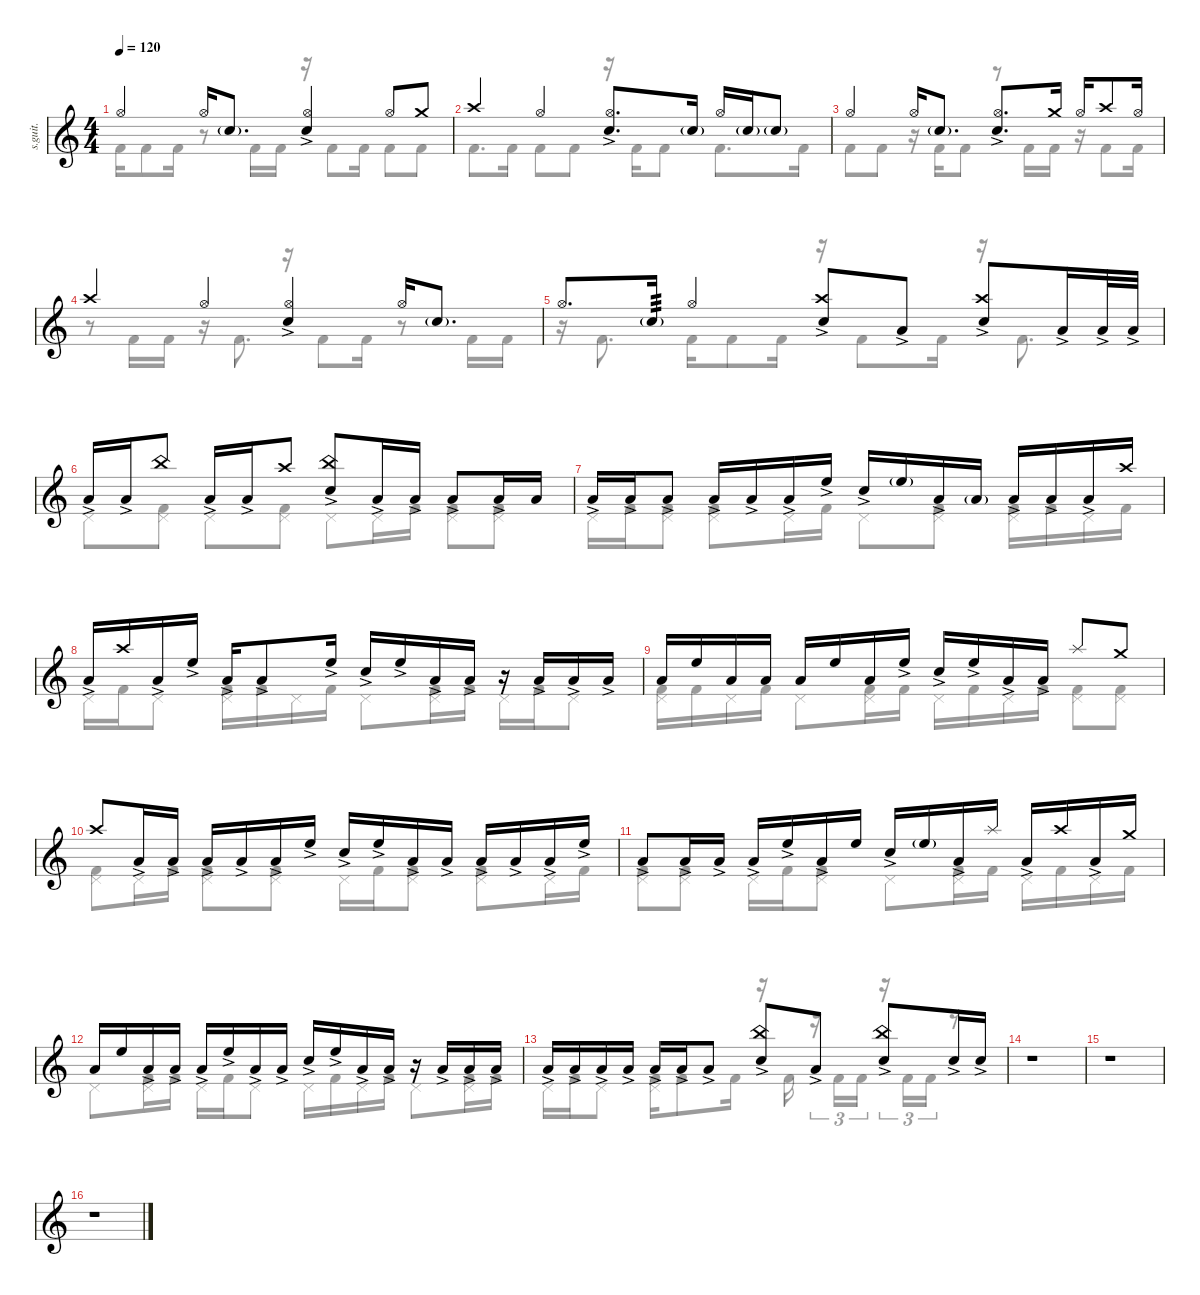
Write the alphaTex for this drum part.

\defaultSystemsLayout 4
\hideDynamics
\bracketExtendMode nobrackets
\track ("Matt Halpern" "s.guit.") {instrument percussion}
\staff {score}
\articulation defaults
\voice
\ts (4 4)
\tempo 120
\clef g2
\ks c "Hi-Hat (open)".4{lyrics (0 "") lyrics (1 "") lyrics (2 "") lyrics (3 "") lyrics (4 "") dy f} "Hi-Hat (open)".16{lyrics (0 "") lyrics (1 "") lyrics (2 "") lyrics (3 "") lyrics (4 "")} "Snare (hit) 2"{g}.8{d lyrics (0 "") lyrics (1 "") lyrics (2 "") lyrics (3 "") lyrics (4 "")}
("Snare (hit) 2"{ac} "Hi-Hat (open)").4{lyrics (0 "") lyrics (1 "") lyrics (2 "") lyrics (3 "") lyrics (4 "")} "Hi-Hat (open)".8{lyrics (0 "") lyrics (1 "") lyrics (2 "") lyrics (3 "") lyrics (4 "")} "Crash medium (hit)".8{lyrics (0 "") lyrics (1 "") lyrics (2 "") lyrics (3 "") lyrics (4 "")} |
"Crash high (hit)".4{lyrics (0 "") lyrics (1 "") lyrics (2 "") lyrics (3 "") lyrics (4 "")} "Hi-Hat (open)".4{lyrics (0 "") lyrics (1 "") lyrics (2 "") lyrics (3 "") lyrics (4 "")} ("Hi-Hat (open)" "Snare (hit) 2"{ac}).8{d lyrics (0 "") lyrics (1 "") lyrics (2 "") lyrics (3 "") lyrics (4 "")} "Snare (hit) 2"{g}.16{lyrics (0 "") lyrics (1 "") lyrics (2 "") lyrics (3 "") lyrics (4 "")} "Hi-Hat (open)".16{lyrics (0 "") lyrics (1 "") lyrics (2 "") lyrics (3 "") lyrics (4 "")} "Snare (hit) 2"{g}.16{lyrics (0 "") lyrics (1 "") lyrics (2 "") lyrics (3 "") lyrics (4 "")} "Snare (hit) 2"{g}.8{lyrics (0 "") lyrics (1 "") lyrics (2 "") lyrics (3 "") lyrics (4 "")} |
"Hi-Hat (open)".4{lyrics (0 "") lyrics (1 "") lyrics (2 "") lyrics (3 "") lyrics (4 "")} "Hi-Hat (open)".16{lyrics (0 "") lyrics (1 "") lyrics (2 "") lyrics (3 "") lyrics (4 "")} "Snare (hit) 2"{g}.8{d lyrics (0 "") lyrics (1 "") lyrics (2 "") lyrics (3 "") lyrics (4 "")} ("Snare (hit) 2"{ac} "Hi-Hat (open)").8{d lyrics (0 "") lyrics (1 "") lyrics (2 "") lyrics (3 "") lyrics (4 "")} "Crash medium (hit)".16{lyrics (0 "") lyrics (1 "") lyrics (2 "") lyrics (3 "") lyrics (4 "")} "Hi-Hat (open)".16{lyrics (0 "") lyrics (1 "") lyrics (2 "") lyrics (3 "") lyrics (4 "")} "Crash high (hit)".8{lyrics (0 "") lyrics (1 "") lyrics (2 "") lyrics (3 "") lyrics (4 "")} "Hi-Hat (open)".16{lyrics (0 "") lyrics (1 "") lyrics (2 "") lyrics (3 "") lyrics (4 "")} |
"Crash high (hit)".4{lyrics (0 "") lyrics (1 "") lyrics (2 "") lyrics (3 "") lyrics (4 "")} "Hi-Hat (open)".4{lyrics (0 "") lyrics (1 "") lyrics (2 "") lyrics (3 "") lyrics (4 "")} ("Hi-Hat (open)" "Snare (hit) 2"{ac}).4{lyrics (0 "") lyrics (1 "") lyrics (2 "") lyrics (3 "") lyrics (4 "")} "Hi-Hat (open)".16{lyrics (0 "") lyrics (1 "") lyrics (2 "") lyrics (3 "") lyrics (4 "")} "Snare (hit) 2"{g}.8{d lyrics (0 "") lyrics (1 "") lyrics (2 "") lyrics (3 "") lyrics (4 "")} |
"Hi-Hat (open)".8{d lyrics (0 "") lyrics (1 "") lyrics (2 "") lyrics (3 "") lyrics (4 "")} "Snare (hit) 2"{g}.16{lyrics (0 "") lyrics (1 "") lyrics (2 "") lyrics (3 "") lyrics (4 "") tp 3} "Hi-Hat (open)".4{lyrics (0 "") lyrics (1 "") lyrics (2 "") lyrics (3 "") lyrics (4 "")} ("Snare (hit) 2"{ac} "Crash high (hit)").8{lyrics (0 "") lyrics (1 "") lyrics (2 "") lyrics (3 "") lyrics (4 "")} "Low Tom (hit)"{ac}.8{lyrics (0 "") lyrics (1 "") lyrics (2 "") lyrics (3 "") lyrics (4 "")} ("Snare (hit) 2"{ac} "Crash high (hit)").8{lyrics (0 "") lyrics (1 "") lyrics (2 "") lyrics (3 "") lyrics (4 "")} "Low Tom (hit)"{ac}.16{lyrics (0 "") lyrics (1 "") lyrics (2 "") lyrics (3 "") lyrics (4 "")} "Low Tom (hit)"{ac}.32{lyrics (0 "") lyrics (1 "") lyrics (2 "") lyrics (3 "") lyrics (4 "")} "Low Tom (hit)"{ac}.32{lyrics (0 "") lyrics (1 "") lyrics (2 "") lyrics (3 "") lyrics (4 "")} |
"Low Tom (hit)"{ac}.16{lyrics (0 "") lyrics (1 "") lyrics (2 "") lyrics (3 "") lyrics (4 "")} "Low Tom (hit)"{ac}.16{lyrics (0 "") lyrics (1 "") lyrics (2 "") lyrics (3 "") lyrics (4 "")} "China (hit)".8{lyrics (0 "") lyrics (1 "") lyrics (2 "") lyrics (3 "") lyrics (4 "")} "Low Tom (hit)"{ac}.16{lyrics (0 "") lyrics (1 "") lyrics (2 "") lyrics (3 "") lyrics (4 "")} "Low Tom (hit)"{ac}.16{lyrics (0 "") lyrics (1 "") lyrics (2 "") lyrics (3 "") lyrics (4 "")} "Crash high (hit)".8{lyrics (0 "") lyrics (1 "") lyrics (2 "") lyrics (3 "") lyrics (4 "")} ("Snare (hit) 2"{ac} "China (hit)").8{lyrics (0 "") lyrics (1 "") lyrics (2 "") lyrics (3 "") lyrics (4 "")} "Low Tom (hit)"{ac}.16{lyrics (0 "") lyrics (1 "") lyrics (2 "") lyrics (3 "") lyrics (4 "")} "Low Tom (hit)"{ac}.16{lyrics (0 "") lyrics (1 "") lyrics (2 "") lyrics (3 "") lyrics (4 "")} "Low Tom (hit)"{ac}.8{lyrics (0 "") lyrics (1 "") lyrics (2 "") lyrics (3 "") lyrics (4 "")} "Low Tom (hit)"{ac}.16{lyrics (0 "") lyrics (1 "") lyrics (2 "") lyrics (3 "") lyrics (4 "")} "Low Tom (hit)".16{lyrics (0 "") lyrics (1 "") lyrics (2 "") lyrics (3 "") lyrics (4 "")} |
"Low Tom (hit)"{ac}.16{lyrics (0 "") lyrics (1 "") lyrics (2 "") lyrics (3 "") lyrics (4 "")} "Low Tom (hit)"{ac}.16{lyrics (0 "") lyrics (1 "") lyrics (2 "") lyrics (3 "") lyrics (4 "")} "Low Tom (hit)"{ac}.8{lyrics (0 "") lyrics (1 "") lyrics (2 "") lyrics (3 "") lyrics (4 "")} "Low Tom (hit)"{ac}.16{lyrics (0 "") lyrics (1 "") lyrics (2 "") lyrics (3 "") lyrics (4 "")} "Low Tom (hit)"{ac}.16{lyrics (0 "") lyrics (1 "") lyrics (2 "") lyrics (3 "") lyrics (4 "")} "Low Tom (hit)"{ac}.16{lyrics (0 "") lyrics (1 "") lyrics (2 "") lyrics (3 "") lyrics (4 "")} "High Floor Tom (hit)"{ac}.16{lyrics (0 "") lyrics (1 "") lyrics (2 "") lyrics (3 "") lyrics (4 "")} "Snare (hit) 2"{ac}.16{lyrics (0 "") lyrics (1 "") lyrics (2 "") lyrics (3 "") lyrics (4 "")} "High Floor Tom (hit)"{g}.16{lyrics (0 "") lyrics (1 "") lyrics (2 "") lyrics (3 "") lyrics (4 "")} "Low Tom (hit)"{ac}.16{lyrics (0 "") lyrics (1 "") lyrics (2 "") lyrics (3 "") lyrics (4 "")} "Low Tom (hit)"{g}.16{lyrics (0 "") lyrics (1 "") lyrics (2 "") lyrics (3 "") lyrics (4 "")} "Low Tom (hit)"{ac}.16{lyrics (0 "") lyrics (1 "") lyrics (2 "") lyrics (3 "") lyrics (4 "")} "Low Tom (hit)"{ac}.16{lyrics (0 "") lyrics (1 "") lyrics (2 "") lyrics (3 "") lyrics (4 "")} "Low Tom (hit)"{ac}.16{lyrics (0 "") lyrics (1 "") lyrics (2 "") lyrics (3 "") lyrics (4 "")} "Crash high (hit)".16{lyrics (0 "") lyrics (1 "") lyrics (2 "") lyrics (3 "") lyrics (4 "")} |
"Low Tom (hit)"{ac}.16{lyrics (0 "") lyrics (1 "") lyrics (2 "") lyrics (3 "") lyrics (4 "")} "Crash high (hit)".16{lyrics (0 "") lyrics (1 "") lyrics (2 "") lyrics (3 "") lyrics (4 "")} "Low Tom (hit)"{ac}.16{lyrics (0 "") lyrics (1 "") lyrics (2 "") lyrics (3 "") lyrics (4 "")} "High Floor Tom (hit)"{ac}.16{lyrics (0 "") lyrics (1 "") lyrics (2 "") lyrics (3 "") lyrics (4 "")} "Low Tom (hit)"{ac}.16{lyrics (0 "") lyrics (1 "") lyrics (2 "") lyrics (3 "") lyrics (4 "")} "Low Tom (hit)"{ac}.8{lyrics (0 "") lyrics (1 "") lyrics (2 "") lyrics (3 "") lyrics (4 "")} "High Floor Tom (hit)"{ac}.16{lyrics (0 "") lyrics (1 "") lyrics (2 "") lyrics (3 "") lyrics (4 "")} "Snare (hit) 2"{ac}.16{lyrics (0 "") lyrics (1 "") lyrics (2 "") lyrics (3 "") lyrics (4 "")} "High Floor Tom (hit)"{ac}.16{lyrics (0 "") lyrics (1 "") lyrics (2 "") lyrics (3 "") lyrics (4 "")} "Low Tom (hit)"{ac}.16{lyrics (0 "") lyrics (1 "") lyrics (2 "") lyrics (3 "") lyrics (4 "")} "Low Tom (hit)"{ac}.16{lyrics (0 "") lyrics (1 "") lyrics (2 "") lyrics (3 "") lyrics (4 "")} r.16 "Low Tom (hit)"{ac}.16{lyrics (0 "") lyrics (1 "") lyrics (2 "") lyrics (3 "") lyrics (4 "")} "Low Tom (hit)"{ac}.16{lyrics (0 "") lyrics (1 "") lyrics (2 "") lyrics (3 "") lyrics (4 "")} "Low Tom (hit)"{ac}.16{lyrics (0 "") lyrics (1 "") lyrics (2 "") lyrics (3 "") lyrics (4 "")} |
"Low Tom (hit)".16{lyrics (0 "") lyrics (1 "") lyrics (2 "") lyrics (3 "") lyrics (4 "")} "High Floor Tom (hit)".16{lyrics (0 "") lyrics (1 "") lyrics (2 "") lyrics (3 "") lyrics (4 "")} "Low Tom (hit)".16{lyrics (0 "") lyrics (1 "") lyrics (2 "") lyrics (3 "") lyrics (4 "")} "Low Tom (hit)".16{lyrics (0 "") lyrics (1 "") lyrics (2 "") lyrics (3 "") lyrics (4 "")} "Low Tom (hit)".16{lyrics (0 "") lyrics (1 "") lyrics (2 "") lyrics (3 "") lyrics (4 "")} "High Floor Tom (hit)".16{lyrics (0 "") lyrics (1 "") lyrics (2 "") lyrics (3 "") lyrics (4 "")} "Low Tom (hit)".16{lyrics (0 "") lyrics (1 "") lyrics (2 "") lyrics (3 "") lyrics (4 "")} "High Floor Tom (hit)"{ac}.16{lyrics (0 "") lyrics (1 "") lyrics (2 "") lyrics (3 "") lyrics (4 "")} "Snare (hit) 2"{ac}.16{lyrics (0 "") lyrics (1 "") lyrics (2 "") lyrics (3 "") lyrics (4 "")} "High Floor Tom (hit)"{ac}.16{lyrics (0 "") lyrics (1 "") lyrics (2 "") lyrics (3 "") lyrics (4 "")} "Low Tom (hit)"{ac}.16{lyrics (0 "") lyrics (1 "") lyrics (2 "") lyrics (3 "") lyrics (4 "")} "Low Tom (hit)"{ac}.16{lyrics (0 "") lyrics (1 "") lyrics (2 "") lyrics (3 "") lyrics (4 "")} "Splash (hit)".8{lyrics (0 "") lyrics (1 "") lyrics (2 "") lyrics (3 "") lyrics (4 "")} "Crash medium (hit)".8{lyrics (0 "") lyrics (1 "") lyrics (2 "") lyrics (3 "") lyrics (4 "")} |
"Crash high (hit)".8{lyrics (0 "") lyrics (1 "") lyrics (2 "") lyrics (3 "") lyrics (4 "")} "Low Tom (hit)"{ac}.16{lyrics (0 "") lyrics (1 "") lyrics (2 "") lyrics (3 "") lyrics (4 "")} "Low Tom (hit)"{ac}.16{lyrics (0 "") lyrics (1 "") lyrics (2 "") lyrics (3 "") lyrics (4 "")} "Low Tom (hit)"{ac}.16{lyrics (0 "") lyrics (1 "") lyrics (2 "") lyrics (3 "") lyrics (4 "")} "Low Tom (hit)"{ac}.16{lyrics (0 "") lyrics (1 "") lyrics (2 "") lyrics (3 "") lyrics (4 "")} "Low Tom (hit)"{ac}.16{lyrics (0 "") lyrics (1 "") lyrics (2 "") lyrics (3 "") lyrics (4 "")} "High Floor Tom (hit)"{ac}.16{lyrics (0 "") lyrics (1 "") lyrics (2 "") lyrics (3 "") lyrics (4 "")} "Snare (hit) 2"{ac}.16{lyrics (0 "") lyrics (1 "") lyrics (2 "") lyrics (3 "") lyrics (4 "")} "High Floor Tom (hit)"{ac}.16{lyrics (0 "") lyrics (1 "") lyrics (2 "") lyrics (3 "") lyrics (4 "")} "Low Tom (hit)"{ac}.16{lyrics (0 "") lyrics (1 "") lyrics (2 "") lyrics (3 "") lyrics (4 "")} "Low Tom (hit)"{ac}.16{lyrics (0 "") lyrics (1 "") lyrics (2 "") lyrics (3 "") lyrics (4 "")} "Low Tom (hit)"{ac}.16{lyrics (0 "") lyrics (1 "") lyrics (2 "") lyrics (3 "") lyrics (4 "")} "Low Tom (hit)"{ac}.16{lyrics (0 "") lyrics (1 "") lyrics (2 "") lyrics (3 "") lyrics (4 "")} "Low Tom (hit)"{ac}.16{lyrics (0 "") lyrics (1 "") lyrics (2 "") lyrics (3 "") lyrics (4 "")} "High Floor Tom (hit)"{ac}.16{lyrics (0 "") lyrics (1 "") lyrics (2 "") lyrics (3 "") lyrics (4 "")} |
"Low Tom (hit)"{ac}.8{lyrics (0 "") lyrics (1 "") lyrics (2 "") lyrics (3 "") lyrics (4 "")} "Low Tom (hit)"{ac}.16{lyrics (0 "") lyrics (1 "") lyrics (2 "") lyrics (3 "") lyrics (4 "")} "Low Tom (hit)"{ac}.16{lyrics (0 "") lyrics (1 "") lyrics (2 "") lyrics (3 "") lyrics (4 "")} "Low Tom (hit)"{ac}.16{lyrics (0 "") lyrics (1 "") lyrics (2 "") lyrics (3 "") lyrics (4 "")} "High Floor Tom (hit)"{ac}.16{lyrics (0 "") lyrics (1 "") lyrics (2 "") lyrics (3 "") lyrics (4 "")} "Low Tom (hit)"{ac}.16{lyrics (0 "") lyrics (1 "") lyrics (2 "") lyrics (3 "") lyrics (4 "")} "High Floor Tom (hit)".16{lyrics (0 "") lyrics (1 "") lyrics (2 "") lyrics (3 "") lyrics (4 "")} "Snare (hit) 2"{ac}.16{lyrics (0 "") lyrics (1 "") lyrics (2 "") lyrics (3 "") lyrics (4 "")} "High Floor Tom (hit)"{g}.16{lyrics (0 "") lyrics (1 "") lyrics (2 "") lyrics (3 "") lyrics (4 "")} "Low Tom (hit)"{ac}.16{lyrics (0 "") lyrics (1 "") lyrics (2 "") lyrics (3 "") lyrics (4 "")} "Splash (hit)".16{lyrics (0 "") lyrics (1 "") lyrics (2 "") lyrics (3 "") lyrics (4 "")} "Low Tom (hit)"{ac}.16{lyrics (0 "") lyrics (1 "") lyrics (2 "") lyrics (3 "") lyrics (4 "")} "Crash high (hit)".16{lyrics (0 "") lyrics (1 "") lyrics (2 "") lyrics (3 "") lyrics (4 "")} "Low Tom (hit)"{ac}.16{lyrics (0 "") lyrics (1 "") lyrics (2 "") lyrics (3 "") lyrics (4 "")} "Crash medium (hit)".16{lyrics (0 "") lyrics (1 "") lyrics (2 "") lyrics (3 "") lyrics (4 "")} |
"Low Tom (hit)".16{lyrics (0 "") lyrics (1 "") lyrics (2 "") lyrics (3 "") lyrics (4 "")} "High Floor Tom (hit)".16{lyrics (0 "") lyrics (1 "") lyrics (2 "") lyrics (3 "") lyrics (4 "")} "Low Tom (hit)"{ac}.16{lyrics (0 "") lyrics (1 "") lyrics (2 "") lyrics (3 "") lyrics (4 "")} "Low Tom (hit)"{ac}.16{lyrics (0 "") lyrics (1 "") lyrics (2 "") lyrics (3 "") lyrics (4 "")} "Low Tom (hit)"{ac}.16{lyrics (0 "") lyrics (1 "") lyrics (2 "") lyrics (3 "") lyrics (4 "")} "High Floor Tom (hit)"{ac}.16{lyrics (0 "") lyrics (1 "") lyrics (2 "") lyrics (3 "") lyrics (4 "")} "Low Tom (hit)"{ac}.16{lyrics (0 "") lyrics (1 "") lyrics (2 "") lyrics (3 "") lyrics (4 "")} "Low Tom (hit)"{ac}.16{lyrics (0 "") lyrics (1 "") lyrics (2 "") lyrics (3 "") lyrics (4 "")} "Snare (hit) 2"{ac}.16{lyrics (0 "") lyrics (1 "") lyrics (2 "") lyrics (3 "") lyrics (4 "")} "High Floor Tom (hit)"{ac}.16{lyrics (0 "") lyrics (1 "") lyrics (2 "") lyrics (3 "") lyrics (4 "")} "Low Tom (hit)"{ac}.16{lyrics (0 "") lyrics (1 "") lyrics (2 "") lyrics (3 "") lyrics (4 "")} "Low Tom (hit)"{ac}.16{lyrics (0 "") lyrics (1 "") lyrics (2 "") lyrics (3 "") lyrics (4 "")} r.16 "Low Tom (hit)"{ac}.16{lyrics (0 "") lyrics (1 "") lyrics (2 "") lyrics (3 "") lyrics (4 "")} "Low Tom (hit)"{ac}.16{lyrics (0 "") lyrics (1 "") lyrics (2 "") lyrics (3 "") lyrics (4 "")} "Low Tom (hit)"{ac}.16{lyrics (0 "") lyrics (1 "") lyrics (2 "") lyrics (3 "") lyrics (4 "")} |
"Low Tom (hit)"{ac}.16{lyrics (0 "") lyrics (1 "") lyrics (2 "") lyrics (3 "") lyrics (4 "")} "Low Tom (hit)"{ac}.16{lyrics (0 "") lyrics (1 "") lyrics (2 "") lyrics (3 "") lyrics (4 "")} "Low Tom (hit)"{ac}.16{lyrics (0 "") lyrics (1 "") lyrics (2 "") lyrics (3 "") lyrics (4 "")} "Low Tom (hit)"{ac}.16{lyrics (0 "") lyrics (1 "") lyrics (2 "") lyrics (3 "") lyrics (4 "")} "Low Tom (hit)"{ac}.16{lyrics (0 "") lyrics (1 "") lyrics (2 "") lyrics (3 "") lyrics (4 "")} "Low Tom (hit)"{ac}.16{lyrics (0 "") lyrics (1 "") lyrics (2 "") lyrics (3 "") lyrics (4 "")} "Low Tom (hit)"{ac}.8{lyrics (0 "") lyrics (1 "") lyrics (2 "") lyrics (3 "") lyrics (4 "")} ("Snare (hit) 2"{ac} "China (hit)").8{lyrics (0 "") lyrics (1 "") lyrics (2 "") lyrics (3 "") lyrics (4 "")} "Low Tom (hit)"{ac}.8{lyrics (0 "") lyrics (1 "") lyrics (2 "") lyrics (3 "") lyrics (4 "")} ("Snare (hit) 2"{ac} "China (hit)").8{lyrics (0 "") lyrics (1 "") lyrics (2 "") lyrics (3 "") lyrics (4 "")} "Snare (hit) 2"{ac}.16{lyrics (0 "") lyrics (1 "") lyrics (2 "") lyrics (3 "") lyrics (4 "")} "Snare (hit) 2"{ac}.16{lyrics (0 "") lyrics (1 "") lyrics (2 "") lyrics (3 "") lyrics (4 "")} |
r.1 |
r.1 |
r.1
\voice
\clef g2
\ottava regular
\simile none
\ks c "Kick (hit) 2".16{lyrics (0 "") lyrics (1 "") lyrics (2 "") lyrics (3 "") lyrics (4 "") dy f} "Kick (hit) 2".8{lyrics (0 "") lyrics (1 "") lyrics (2 "") lyrics (3 "") lyrics (4 "")} "Kick (hit) 2".16{lyrics (0 "") lyrics (1 "") lyrics (2 "") lyrics (3 "") lyrics (4 "")}
r.8 "Kick (hit) 2".16{lyrics (0 "") lyrics (1 "") lyrics (2 "") lyrics (3 "") lyrics (4 "")} "Kick (hit) 2".16{lyrics (0 "") lyrics (1 "") lyrics (2 "") lyrics (3 "") lyrics (4 "")} r.16 "Kick (hit) 2".8{lyrics (0 "") lyrics (1 "") lyrics (2 "") lyrics (3 "") lyrics (4 "")} "Kick (hit) 2".16{lyrics (0 "") lyrics (1 "") lyrics (2 "") lyrics (3 "") lyrics (4 "")} "Kick (hit) 2".8{lyrics (0 "") lyrics (1 "") lyrics (2 "") lyrics (3 "") lyrics (4 "")} "Kick (hit) 2".8{lyrics (0 "") lyrics (1 "") lyrics (2 "") lyrics (3 "") lyrics (4 "")} |
"Kick (hit) 2".8{d lyrics (0 "") lyrics (1 "") lyrics (2 "") lyrics (3 "") lyrics (4 "")} "Kick (hit) 2".16{lyrics (0 "") lyrics (1 "") lyrics (2 "") lyrics (3 "") lyrics (4 "")} "Kick (hit) 2".8{lyrics (0 "") lyrics (1 "") lyrics (2 "") lyrics (3 "") lyrics (4 "")} "Kick (hit) 2".8{lyrics (0 "") lyrics (1 "") lyrics (2 "") lyrics (3 "") lyrics (4 "")} r.16 "Kick (hit) 2".16{lyrics (0 "") lyrics (1 "") lyrics (2 "") lyrics (3 "") lyrics (4 "")} "Kick (hit) 2".8{lyrics (0 "") lyrics (1 "") lyrics (2 "") lyrics (3 "") lyrics (4 "")} "Kick (hit) 2".8{d lyrics (0 "") lyrics (1 "") lyrics (2 "") lyrics (3 "") lyrics (4 "")} "Kick (hit) 2".16{lyrics (0 "") lyrics (1 "") lyrics (2 "") lyrics (3 "") lyrics (4 "")} |
"Kick (hit) 2".8{lyrics (0 "") lyrics (1 "") lyrics (2 "") lyrics (3 "") lyrics (4 "")} "Kick (hit) 2".8{lyrics (0 "") lyrics (1 "") lyrics (2 "") lyrics (3 "") lyrics (4 "")} r.16 "Kick (hit) 2".16{lyrics (0 "") lyrics (1 "") lyrics (2 "") lyrics (3 "") lyrics (4 "")} "Kick (hit) 2".8{lyrics (0 "") lyrics (1 "") lyrics (2 "") lyrics (3 "") lyrics (4 "")} r.8 "Kick (hit) 2".16{lyrics (0 "") lyrics (1 "") lyrics (2 "") lyrics (3 "") lyrics (4 "")} "Kick (hit) 2".16{lyrics (0 "") lyrics (1 "") lyrics (2 "") lyrics (3 "") lyrics (4 "")} r.16 "Kick (hit) 2".8{lyrics (0 "") lyrics (1 "") lyrics (2 "") lyrics (3 "") lyrics (4 "")} "Kick (hit) 2".16{lyrics (0 "") lyrics (1 "") lyrics (2 "") lyrics (3 "") lyrics (4 "")} |
r.8 "Kick (hit) 2".16{lyrics (0 "") lyrics (1 "") lyrics (2 "") lyrics (3 "") lyrics (4 "")} "Kick (hit) 2".16{lyrics (0 "") lyrics (1 "") lyrics (2 "") lyrics (3 "") lyrics (4 "")} r.16 "Kick (hit) 2".8{d lyrics (0 "") lyrics (1 "") lyrics (2 "") lyrics (3 "") lyrics (4 "")} r.16 "Kick (hit) 2".8{lyrics (0 "") lyrics (1 "") lyrics (2 "") lyrics (3 "") lyrics (4 "")} "Kick (hit) 2".16{lyrics (0 "") lyrics (1 "") lyrics (2 "") lyrics (3 "") lyrics (4 "")} r.8 "Kick (hit) 2".16{lyrics (0 "") lyrics (1 "") lyrics (2 "") lyrics (3 "") lyrics (4 "")} "Kick (hit) 2".16{lyrics (0 "") lyrics (1 "") lyrics (2 "") lyrics (3 "") lyrics (4 "")} |
r.16 "Kick (hit) 2".8{d lyrics (0 "") lyrics (1 "") lyrics (2 "") lyrics (3 "") lyrics (4 "")} "Kick (hit) 2".16{lyrics (0 "") lyrics (1 "") lyrics (2 "") lyrics (3 "") lyrics (4 "")} "Kick (hit) 2".8{lyrics (0 "") lyrics (1 "") lyrics (2 "") lyrics (3 "") lyrics (4 "")} "Kick (hit) 2".16{lyrics (0 "") lyrics (1 "") lyrics (2 "") lyrics (3 "") lyrics (4 "")} r.16 "Kick (hit) 2".8{lyrics (0 "") lyrics (1 "") lyrics (2 "") lyrics (3 "") lyrics (4 "")} "Kick (hit) 2".16{lyrics (0 "") lyrics (1 "") lyrics (2 "") lyrics (3 "") lyrics (4 "")} r.16 "Kick (hit) 2".8{d lyrics (0 "") lyrics (1 "") lyrics (2 "") lyrics (3 "") lyrics (4 "")} |
"Pedal Hi-Hat (hit)".8{lyrics (0 "") lyrics (1 "") lyrics (2 "") lyrics (3 "") lyrics (4 "")} ("Kick (hit) 2" "Pedal Hi-Hat (hit)").8{lyrics (0 "") lyrics (1 "") lyrics (2 "") lyrics (3 "") lyrics (4 "")} "Pedal Hi-Hat (hit)".8{lyrics (0 "") lyrics (1 "") lyrics (2 "") lyrics (3 "") lyrics (4 "")} ("Kick (hit) 2" "Pedal Hi-Hat (hit)").8{lyrics (0 "") lyrics (1 "") lyrics (2 "") lyrics (3 "") lyrics (4 "")} "Pedal Hi-Hat (hit)".8{lyrics (0 "") lyrics (1 "") lyrics (2 "") lyrics (3 "") lyrics (4 "")} "Pedal Hi-Hat (hit)".16{lyrics (0 "") lyrics (1 "") lyrics (2 "") lyrics (3 "") lyrics (4 "")} "Kick (hit) 2".16{lyrics (0 "") lyrics (1 "") lyrics (2 "") lyrics (3 "") lyrics (4 "")} ("Pedal Hi-Hat (hit)" "Kick (hit) 2").8{lyrics (0 "") lyrics (1 "") lyrics (2 "") lyrics (3 "") lyrics (4 "")} ("Pedal Hi-Hat (hit)" "Kick (hit) 2").8{lyrics (0 "") lyrics (1 "") lyrics (2 "") lyrics (3 "") lyrics (4 "")} |
"Pedal Hi-Hat (hit)".16{lyrics (0 "") lyrics (1 "") lyrics (2 "") lyrics (3 "") lyrics (4 "")} "Kick (hit) 2".16{lyrics (0 "") lyrics (1 "") lyrics (2 "") lyrics (3 "") lyrics (4 "")} ("Pedal Hi-Hat (hit)" "Kick (hit) 2").8{lyrics (0 "") lyrics (1 "") lyrics (2 "") lyrics (3 "") lyrics (4 "")} ("Pedal Hi-Hat (hit)" "Kick (hit) 2").8{lyrics (0 "") lyrics (1 "") lyrics (2 "") lyrics (3 "") lyrics (4 "")} "Pedal Hi-Hat (hit)".16{lyrics (0 "") lyrics (1 "") lyrics (2 "") lyrics (3 "") lyrics (4 "")} "Kick (hit) 2".16{lyrics (0 "") lyrics (1 "") lyrics (2 "") lyrics (3 "") lyrics (4 "")} "Pedal Hi-Hat (hit)".8{lyrics (0 "") lyrics (1 "") lyrics (2 "") lyrics (3 "") lyrics (4 "")} ("Pedal Hi-Hat (hit)" "Kick (hit) 2").8{lyrics (0 "") lyrics (1 "") lyrics (2 "") lyrics (3 "") lyrics (4 "")} ("Pedal Hi-Hat (hit)" "Kick (hit) 2").16{lyrics (0 "") lyrics (1 "") lyrics (2 "") lyrics (3 "") lyrics (4 "")} "Kick (hit) 2".16{lyrics (0 "") lyrics (1 "") lyrics (2 "") lyrics (3 "") lyrics (4 "")} "Pedal Hi-Hat (hit)".16{lyrics (0 "") lyrics (1 "") lyrics (2 "") lyrics (3 "") lyrics (4 "")} "Kick (hit) 2".16{lyrics (0 "") lyrics (1 "") lyrics (2 "") lyrics (3 "") lyrics (4 "")} |
"Pedal Hi-Hat (hit)".16{lyrics (0 "") lyrics (1 "") lyrics (2 "") lyrics (3 "") lyrics (4 "")} "Kick (hit) 2".16{lyrics (0 "") lyrics (1 "") lyrics (2 "") lyrics (3 "") lyrics (4 "")} "Pedal Hi-Hat (hit)".8{lyrics (0 "") lyrics (1 "") lyrics (2 "") lyrics (3 "") lyrics (4 "")} ("Kick (hit) 2" "Pedal Hi-Hat (hit)").16{lyrics (0 "") lyrics (1 "") lyrics (2 "") lyrics (3 "") lyrics (4 "")} "Kick (hit) 2".16{lyrics (0 "") lyrics (1 "") lyrics (2 "") lyrics (3 "") lyrics (4 "")} "Pedal Hi-Hat (hit)".16{lyrics (0 "") lyrics (1 "") lyrics (2 "") lyrics (3 "") lyrics (4 "")} "Kick (hit) 2".16{lyrics (0 "") lyrics (1 "") lyrics (2 "") lyrics (3 "") lyrics (4 "")} "Pedal Hi-Hat (hit)".8{lyrics (0 "") lyrics (1 "") lyrics (2 "") lyrics (3 "") lyrics (4 "")} ("Kick (hit) 2" "Pedal Hi-Hat (hit)").16{lyrics (0 "") lyrics (1 "") lyrics (2 "") lyrics (3 "") lyrics (4 "")} "Kick (hit) 2".16{lyrics (0 "") lyrics (1 "") lyrics (2 "") lyrics (3 "") lyrics (4 "")} "Pedal Hi-Hat (hit)".16{lyrics (0 "") lyrics (1 "") lyrics (2 "") lyrics (3 "") lyrics (4 "")} "Kick (hit) 2".16{lyrics (0 "") lyrics (1 "") lyrics (2 "") lyrics (3 "") lyrics (4 "")} "Pedal Hi-Hat (hit)".8{lyrics (0 "") lyrics (1 "") lyrics (2 "") lyrics (3 "") lyrics (4 "")} |
("Kick (hit) 2" "Pedal Hi-Hat (hit)").16{lyrics (0 "") lyrics (1 "") lyrics (2 "") lyrics (3 "") lyrics (4 "")} "Kick (hit) 2".16{lyrics (0 "") lyrics (1 "") lyrics (2 "") lyrics (3 "") lyrics (4 "")} "Pedal Hi-Hat (hit)".16{lyrics (0 "") lyrics (1 "") lyrics (2 "") lyrics (3 "") lyrics (4 "")} "Kick (hit) 2".16{lyrics (0 "") lyrics (1 "") lyrics (2 "") lyrics (3 "") lyrics (4 "")} "Pedal Hi-Hat (hit)".8{lyrics (0 "") lyrics (1 "") lyrics (2 "") lyrics (3 "") lyrics (4 "")} ("Kick (hit) 2" "Pedal Hi-Hat (hit)").16{lyrics (0 "") lyrics (1 "") lyrics (2 "") lyrics (3 "") lyrics (4 "")} "Kick (hit) 2".16{lyrics (0 "") lyrics (1 "") lyrics (2 "") lyrics (3 "") lyrics (4 "")} "Pedal Hi-Hat (hit)".16{lyrics (0 "") lyrics (1 "") lyrics (2 "") lyrics (3 "") lyrics (4 "")} "Kick (hit) 2".16{lyrics (0 "") lyrics (1 "") lyrics (2 "") lyrics (3 "") lyrics (4 "")} "Pedal Hi-Hat (hit)".16{lyrics (0 "") lyrics (1 "") lyrics (2 "") lyrics (3 "") lyrics (4 "")} "Kick (hit) 2".16{lyrics (0 "") lyrics (1 "") lyrics (2 "") lyrics (3 "") lyrics (4 "")} ("Kick (hit) 2" "Pedal Hi-Hat (hit)").8{lyrics (0 "") lyrics (1 "") lyrics (2 "") lyrics (3 "") lyrics (4 "")} ("Kick (hit) 2" "Pedal Hi-Hat (hit)").8{lyrics (0 "") lyrics (1 "") lyrics (2 "") lyrics (3 "") lyrics (4 "")} |
("Kick (hit) 2" "Pedal Hi-Hat (hit)").8{lyrics (0 "") lyrics (1 "") lyrics (2 "") lyrics (3 "") lyrics (4 "")} "Pedal Hi-Hat (hit)".16{lyrics (0 "") lyrics (1 "") lyrics (2 "") lyrics (3 "") lyrics (4 "")} "Kick (hit) 2".16{lyrics (0 "") lyrics (1 "") lyrics (2 "") lyrics (3 "") lyrics (4 "")} ("Kick (hit) 2" "Pedal Hi-Hat (hit)").8{lyrics (0 "") lyrics (1 "") lyrics (2 "") lyrics (3 "") lyrics (4 "")} ("Kick (hit) 2" "Pedal Hi-Hat (hit)").8{lyrics (0 "") lyrics (1 "") lyrics (2 "") lyrics (3 "") lyrics (4 "")} "Pedal Hi-Hat (hit)".16{lyrics (0 "") lyrics (1 "") lyrics (2 "") lyrics (3 "") lyrics (4 "")} "Kick (hit) 2".16{lyrics (0 "") lyrics (1 "") lyrics (2 "") lyrics (3 "") lyrics (4 "")} ("Kick (hit) 2" "Pedal Hi-Hat (hit)").8{lyrics (0 "") lyrics (1 "") lyrics (2 "") lyrics (3 "") lyrics (4 "")} ("Kick (hit) 2" "Pedal Hi-Hat (hit)").8{lyrics (0 "") lyrics (1 "") lyrics (2 "") lyrics (3 "") lyrics (4 "")} "Pedal Hi-Hat (hit)".16{lyrics (0 "") lyrics (1 "") lyrics (2 "") lyrics (3 "") lyrics (4 "")} "Kick (hit) 2".16{lyrics (0 "") lyrics (1 "") lyrics (2 "") lyrics (3 "") lyrics (4 "")} |
("Kick (hit) 2" "Pedal Hi-Hat (hit)").8{lyrics (0 "") lyrics (1 "") lyrics (2 "") lyrics (3 "") lyrics (4 "")} ("Kick (hit) 2" "Pedal Hi-Hat (hit)").8{lyrics (0 "") lyrics (1 "") lyrics (2 "") lyrics (3 "") lyrics (4 "")} "Pedal Hi-Hat (hit)".16{lyrics (0 "") lyrics (1 "") lyrics (2 "") lyrics (3 "") lyrics (4 "")} "Kick (hit) 2".16{lyrics (0 "") lyrics (1 "") lyrics (2 "") lyrics (3 "") lyrics (4 "")} ("Kick (hit) 2" "Pedal Hi-Hat (hit)").8{lyrics (0 "") lyrics (1 "") lyrics (2 "") lyrics (3 "") lyrics (4 "")} "Pedal Hi-Hat (hit)".8{lyrics (0 "") lyrics (1 "") lyrics (2 "") lyrics (3 "") lyrics (4 "")} ("Kick (hit) 2" "Pedal Hi-Hat (hit)").16{lyrics (0 "") lyrics (1 "") lyrics (2 "") lyrics (3 "") lyrics (4 "")} "Kick (hit) 2".16{lyrics (0 "") lyrics (1 "") lyrics (2 "") lyrics (3 "") lyrics (4 "")} "Pedal Hi-Hat (hit)".16{lyrics (0 "") lyrics (1 "") lyrics (2 "") lyrics (3 "") lyrics (4 "")} "Kick (hit) 2".16{lyrics (0 "") lyrics (1 "") lyrics (2 "") lyrics (3 "") lyrics (4 "")} "Pedal Hi-Hat (hit)".16{lyrics (0 "") lyrics (1 "") lyrics (2 "") lyrics (3 "") lyrics (4 "")} "Kick (hit) 2".16{lyrics (0 "") lyrics (1 "") lyrics (2 "") lyrics (3 "") lyrics (4 "")} |
"Pedal Hi-Hat (hit)".8{lyrics (0 "") lyrics (1 "") lyrics (2 "") lyrics (3 "") lyrics (4 "")} ("Kick (hit) 2" "Pedal Hi-Hat (hit)").16{lyrics (0 "") lyrics (1 "") lyrics (2 "") lyrics (3 "") lyrics (4 "")} "Kick (hit) 2".16{lyrics (0 "") lyrics (1 "") lyrics (2 "") lyrics (3 "") lyrics (4 "")} "Pedal Hi-Hat (hit)".16{lyrics (0 "") lyrics (1 "") lyrics (2 "") lyrics (3 "") lyrics (4 "")} "Kick (hit) 2".16{lyrics (0 "") lyrics (1 "") lyrics (2 "") lyrics (3 "") lyrics (4 "")} "Pedal Hi-Hat (hit)".8{lyrics (0 "") lyrics (1 "") lyrics (2 "") lyrics (3 "") lyrics (4 "")} "Pedal Hi-Hat (hit)".16{lyrics (0 "") lyrics (1 "") lyrics (2 "") lyrics (3 "") lyrics (4 "")} "Kick (hit) 2".16{lyrics (0 "") lyrics (1 "") lyrics (2 "") lyrics (3 "") lyrics (4 "")} "Pedal Hi-Hat (hit)".16{lyrics (0 "") lyrics (1 "") lyrics (2 "") lyrics (3 "") lyrics (4 "")} "Kick (hit) 2".16{lyrics (0 "") lyrics (1 "") lyrics (2 "") lyrics (3 "") lyrics (4 "")} "Pedal Hi-Hat (hit)".8{lyrics (0 "") lyrics (1 "") lyrics (2 "") lyrics (3 "") lyrics (4 "")} ("Kick (hit) 2" "Pedal Hi-Hat (hit)").16{lyrics (0 "") lyrics (1 "") lyrics (2 "") lyrics (3 "") lyrics (4 "")} "Kick (hit) 2".16{lyrics (0 "") lyrics (1 "") lyrics (2 "") lyrics (3 "") lyrics (4 "")} |
"Pedal Hi-Hat (hit)".16{lyrics (0 "") lyrics (1 "") lyrics (2 "") lyrics (3 "") lyrics (4 "")} "Kick (hit) 2".16{lyrics (0 "") lyrics (1 "") lyrics (2 "") lyrics (3 "") lyrics (4 "")} "Pedal Hi-Hat (hit)".8{lyrics (0 "") lyrics (1 "") lyrics (2 "") lyrics (3 "") lyrics (4 "")} ("Kick (hit) 2" "Pedal Hi-Hat (hit)").16{lyrics (0 "") lyrics (1 "") lyrics (2 "") lyrics (3 "") lyrics (4 "")} "Kick (hit) 2".8{lyrics (0 "") lyrics (1 "") lyrics (2 "") lyrics (3 "") lyrics (4 "")} "Kick (hit) 2".16{lyrics (0 "") lyrics (1 "") lyrics (2 "") lyrics (3 "") lyrics (4 "")} r.16 "Kick (hit) 2".16{lyrics (0 "") lyrics (1 "") lyrics (2 "") lyrics (3 "") lyrics (4 "")} r.16{tu (3 2)} "Kick (hit) 2".16{tu (3 2) lyrics (0 "") lyrics (1 "") lyrics (2 "") lyrics (3 "") lyrics (4 "")} "Kick (hit) 2".16{tu (3 2) lyrics (0 "") lyrics (1 "") lyrics (2 "") lyrics (3 "") lyrics (4 "")} r.16{tu (3 2)} "Kick (hit) 2".16{tu (3 2) lyrics (0 "") lyrics (1 "") lyrics (2 "") lyrics (3 "") lyrics (4 "")} "Kick (hit) 2".16{tu (3 2) lyrics (0 "") lyrics (1 "") lyrics (2 "") lyrics (3 "") lyrics (4 "")} r.8 |
r.1 |
r.1 |
r.1
